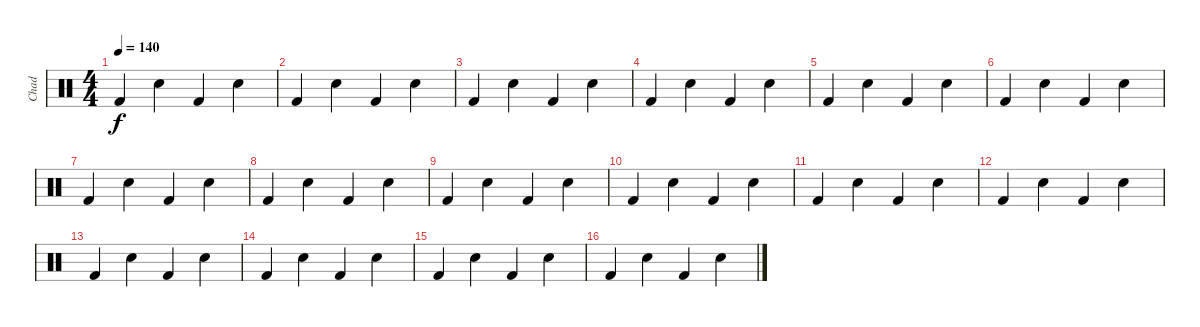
\track ("Chad" "Chad") {instrument percussion}
\staff {score}
\articulation defaults
\ts (4 4)
\tempo 140
\clef neutral
\ks c "Kick (hit) 2".4{dy f} "Electric Snare (hit)".4 "Kick (hit) 2".4 "Electric Snare (hit)".4
|
"Kick (hit) 2".4 "Electric Snare (hit)".4 "Kick (hit) 2".4 "Electric Snare (hit)".4 |
"Kick (hit) 2".4 "Electric Snare (hit)".4 "Kick (hit) 2".4 "Electric Snare (hit)".4 |
"Kick (hit) 2".4 "Electric Snare (hit)".4 "Kick (hit) 2".4 "Electric Snare (hit)".4 |
"Kick (hit) 2".4 "Electric Snare (hit)".4 "Kick (hit) 2".4 "Electric Snare (hit)".4 |
"Kick (hit) 2".4 "Electric Snare (hit)".4 "Kick (hit) 2".4 "Electric Snare (hit)".4 |
"Kick (hit) 2".4 "Electric Snare (hit)".4 "Kick (hit) 2".4 "Electric Snare (hit)".4 |
"Kick (hit) 2".4 "Electric Snare (hit)".4 "Kick (hit) 2".4 "Electric Snare (hit)".4 |
"Kick (hit) 2".4 "Electric Snare (hit)".4 "Kick (hit) 2".4 "Electric Snare (hit)".4 |
"Kick (hit) 2".4 "Electric Snare (hit)".4 "Kick (hit) 2".4 "Electric Snare (hit)".4 |
"Kick (hit) 2".4 "Electric Snare (hit)".4 "Kick (hit) 2".4 "Electric Snare (hit)".4 |
"Kick (hit) 2".4 "Electric Snare (hit)".4 "Kick (hit) 2".4 "Electric Snare (hit)".4 |
"Kick (hit) 2".4 "Electric Snare (hit)".4 "Kick (hit) 2".4 "Electric Snare (hit)".4 |
"Kick (hit) 2".4 "Electric Snare (hit)".4 "Kick (hit) 2".4 "Electric Snare (hit)".4 |
"Kick (hit) 2".4 "Electric Snare (hit)".4 "Kick (hit) 2".4 "Electric Snare (hit)".4 |
"Kick (hit) 2".4 "Electric Snare (hit)".4 "Kick (hit) 2".4 "Electric Snare (hit)".4
